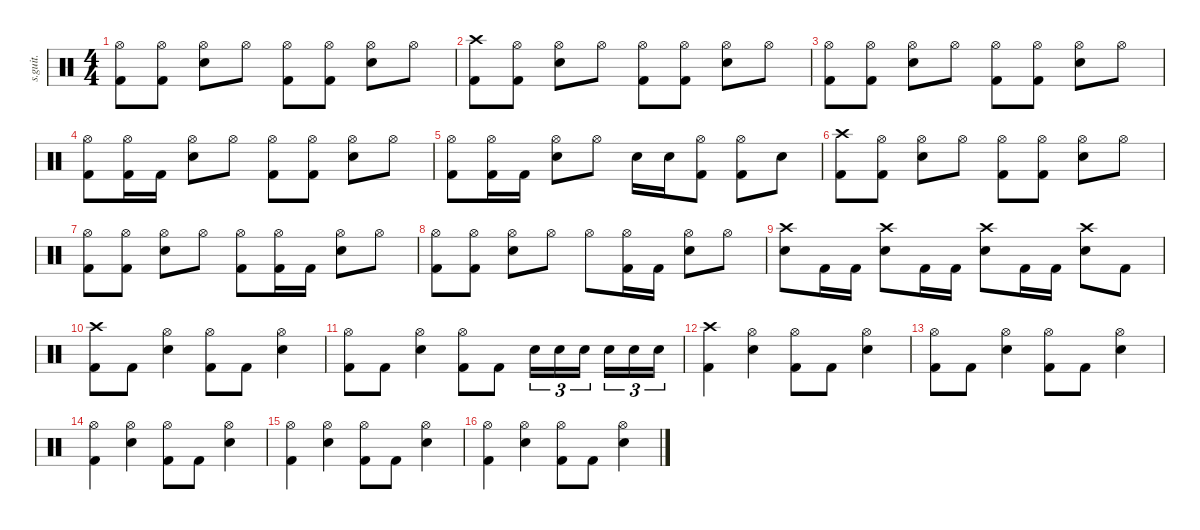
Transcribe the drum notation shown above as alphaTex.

\defaultSystemsLayout 4
\hideDynamics
\bracketExtendMode nobrackets
\track ("" "s.guit.") {instrument percussion}
\staff {score}
\articulation defaults
\ts (4 4)
\tempo (153 hide)
\clef neutral
\ks c
("Hi-Hat (open)" "Kick (hit) 2").8{dy f} ("Hi-Hat (open)" "Kick (hit) 2").8 ("Hi-Hat (open)" "Snare (hit) 2").8 "Hi-Hat (open)".8 ("Hi-Hat (open)" "Kick (hit) 2").8 ("Hi-Hat (open)" "Kick (hit) 2").8 ("Hi-Hat (open)" "Snare (hit) 2").8 "Hi-Hat (open)".8 |
("Crash high (hit)" "Kick (hit) 2").8 ("Hi-Hat (open)" "Kick (hit) 2").8 ("Hi-Hat (open)" "Snare (hit) 2").8 "Hi-Hat (open)".8 ("Hi-Hat (open)" "Kick (hit) 2").8 ("Hi-Hat (open)" "Kick (hit) 2").8 ("Hi-Hat (open)" "Snare (hit) 2").8 "Hi-Hat (open)".8 |
("Hi-Hat (open)" "Kick (hit) 2").8 ("Hi-Hat (open)" "Kick (hit) 2").8 ("Hi-Hat (open)" "Snare (hit) 2").8 "Hi-Hat (open)".8 ("Hi-Hat (open)" "Kick (hit) 2").8 ("Hi-Hat (open)" "Kick (hit) 2").8 ("Hi-Hat (open)" "Snare (hit) 2").8 "Hi-Hat (open)".8 |
("Hi-Hat (open)" "Kick (hit) 2").8 ("Hi-Hat (open)" "Kick (hit) 2").16 "Kick (hit) 2".16 ("Hi-Hat (open)" "Snare (hit) 2").8 "Hi-Hat (open)".8 ("Hi-Hat (open)" "Kick (hit) 2").8 ("Hi-Hat (open)" "Kick (hit) 2").8 ("Hi-Hat (open)" "Snare (hit) 2").8 "Hi-Hat (open)".8 |
("Hi-Hat (open)" "Kick (hit) 2").8 ("Hi-Hat (open)" "Kick (hit) 2").16 "Kick (hit) 2".16 ("Hi-Hat (open)" "Snare (hit) 2").8 "Hi-Hat (open)".8 "Snare (hit) 2".16 "Snare (hit) 2".16 ("Hi-Hat (open)" "Kick (hit) 2").8 ("Hi-Hat (open)" "Kick (hit) 2").8 "Snare (hit) 2".8 |
("Crash high (hit)" "Kick (hit) 2").8 ("Hi-Hat (open)" "Kick (hit) 2").8 ("Hi-Hat (open)" "Snare (hit) 2").8 "Hi-Hat (open)".8 ("Hi-Hat (open)" "Kick (hit) 2").8 ("Hi-Hat (open)" "Kick (hit) 2").8 ("Hi-Hat (open)" "Snare (hit) 2").8 "Hi-Hat (open)".8 |
("Hi-Hat (open)" "Kick (hit) 2").8 ("Hi-Hat (open)" "Kick (hit) 2").8 ("Hi-Hat (open)" "Snare (hit) 2").8 "Hi-Hat (open)".8 ("Hi-Hat (open)" "Kick (hit) 2").8 ("Hi-Hat (open)" "Kick (hit) 2").16 "Kick (hit) 2".16 ("Hi-Hat (open)" "Snare (hit) 2").8 "Hi-Hat (open)".8 |
("Hi-Hat (open)" "Kick (hit) 2").8 ("Hi-Hat (open)" "Kick (hit) 2").8 ("Hi-Hat (open)" "Snare (hit) 2").8 "Hi-Hat (open)".8 "Hi-Hat (open)".8 ("Hi-Hat (open)" "Kick (hit) 2").16 "Kick (hit) 2".16 ("Hi-Hat (open)" "Snare (hit) 2").8 "Hi-Hat (open)".8 |
("Crash high (hit)" "Snare (hit) 2").8 "Kick (hit) 2".16 "Kick (hit) 2".16 ("Crash high (hit)" "Snare (hit) 2").8 "Kick (hit) 2".16 "Kick (hit) 2".16 ("Crash high (hit)" "Snare (hit) 2").8 "Kick (hit) 2".16 "Kick (hit) 2".16 ("Crash high (hit)" "Snare (hit) 2").8 "Kick (hit) 2".8 |
("Crash high (hit)" "Kick (hit) 2").8 "Kick (hit) 2".8 ("Hi-Hat (open)" "Snare (hit) 2").4 ("Hi-Hat (open)" "Kick (hit) 2").8 "Kick (hit) 2".8 ("Hi-Hat (open)" "Snare (hit) 2").4 |
("Hi-Hat (open)" "Kick (hit) 2").8 "Kick (hit) 2".8 ("Hi-Hat (open)" "Snare (hit) 2").4 ("Hi-Hat (open)" "Kick (hit) 2").8 "Kick (hit) 2".8 "Snare (hit) 2".16{tu (3 2)} "Snare (hit) 2".16{tu (3 2)} "Snare (hit) 2".16{tu (3 2)} "Snare (hit) 2".16{tu (3 2)} "Snare (hit) 2".16{tu (3 2)} "Snare (hit) 2".16{tu (3 2)} |
("Crash high (hit)" "Kick (hit) 2").4 ("Hi-Hat (open)" "Snare (hit) 2").4 ("Hi-Hat (open)" "Kick (hit) 2").8 "Kick (hit) 2".8 ("Hi-Hat (open)" "Snare (hit) 2").4 |
("Hi-Hat (open)" "Kick (hit) 2").8 "Kick (hit) 2".8 ("Hi-Hat (open)" "Snare (hit) 2").4 ("Hi-Hat (open)" "Kick (hit) 2").8 "Kick (hit) 2".8 ("Hi-Hat (open)" "Snare (hit) 2").4 |
("Hi-Hat (open)" "Kick (hit) 2").4 ("Hi-Hat (open)" "Snare (hit) 2").4 ("Hi-Hat (open)" "Kick (hit) 2").8 "Kick (hit) 2".8 ("Hi-Hat (open)" "Snare (hit) 2").4 |
("Hi-Hat (open)" "Kick (hit) 2").4 ("Hi-Hat (open)" "Snare (hit) 2").4 ("Hi-Hat (open)" "Kick (hit) 2").8 "Kick (hit) 2".8 ("Hi-Hat (open)" "Snare (hit) 2").4 |
("Hi-Hat (open)" "Kick (hit) 2").4 ("Hi-Hat (open)" "Snare (hit) 2").4 ("Hi-Hat (open)" "Kick (hit) 2").8 "Kick (hit) 2".8 ("Hi-Hat (open)" "Snare (hit) 2").4
